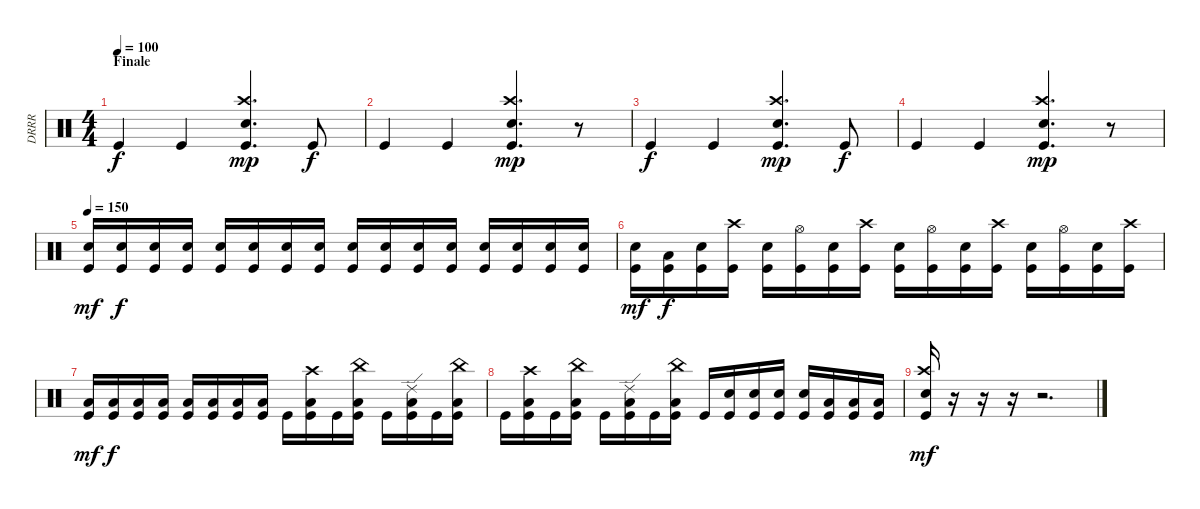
\track ("DRRR" "DRRR") {instrument percussion}
\staff {score}
\articulation defaults
\ts (4 4)
\section ("" "Finale")
\tempo 100
\clef neutral
\ks c "Kick (hit)".4{dy f} "Kick (hit)".4
("Crash high (hit)" "Snare (hit) 2" "Kick (hit)").4{d dy mp} "Kick (hit)".8{dy f} |
"Kick (hit)".4 "Kick (hit)".4 ("Crash high (hit)" "Snare (hit) 2" "Kick (hit)").4{d dy mp} r.8 |
"Kick (hit)".4{dy f} "Kick (hit)".4 ("Crash high (hit)" "Snare (hit) 2" "Kick (hit)").4{d dy mp} "Kick (hit)".8{dy f} |
"Kick (hit)".4 "Kick (hit)".4 ("Crash high (hit)" "Snare (hit) 2" "Kick (hit)").4{d dy mp} r.8 |
\tempo 150
("Snare (hit) 2" "Kick (hit)").16{dy mf} ("Snare (hit) 2" "Kick (hit)").16{dy f} ("Snare (hit) 2" "Kick (hit)").16 ("Snare (hit) 2" "Kick (hit)").16 ("Snare (hit) 2" "Kick (hit)").16 ("Snare (hit) 2" "Kick (hit)").16 ("Snare (hit) 2" "Kick (hit)").16 ("Snare (hit) 2" "Kick (hit)").16 ("Snare (hit) 2" "Kick (hit)").16 ("Snare (hit) 2" "Kick (hit)").16 ("Snare (hit) 2" "Kick (hit)").16 ("Snare (hit) 2" "Kick (hit)").16 ("Snare (hit) 2" "Kick (hit)").16 ("Snare (hit) 2" "Kick (hit)").16 ("Snare (hit) 2" "Kick (hit)").16 ("Snare (hit) 2" "Kick (hit)").16 |
("Snare (hit) 2" "Kick (hit)").16{dy mf} ("Low Tom (hit)" "Kick (hit)").16{dy f} ("Snare (hit) 2" "Kick (hit)").16 ("Crash high (hit)" "Kick (hit)").16 ("Snare (hit) 2" "Kick (hit)").16 ("Hi-Hat (open)" "Kick (hit)").16 ("Snare (hit) 2" "Kick (hit)").16 ("Crash high (hit)" "Kick (hit)").16 ("Snare (hit) 2" "Kick (hit)").16 ("Hi-Hat (open)" "Kick (hit)").16 ("Snare (hit) 2" "Kick (hit)").16 ("Crash high (hit)" "Kick (hit)").16 ("Snare (hit) 2" "Kick (hit)").16 ("Hi-Hat (open)" "Kick (hit)").16 ("Snare (hit) 2" "Kick (hit)").16 ("Crash high (hit)" "Kick (hit)").16 |
("Low Tom (hit)" "Kick (hit)").16{dy mf} ("Low Tom (hit)" "Kick (hit)").16{dy f} ("Low Tom (hit)" "Kick (hit)").16 ("Low Tom (hit)" "Kick (hit)").16 ("Low Tom (hit)" "Kick (hit)").16 ("Low Tom (hit)" "Kick (hit)").16 ("Low Tom (hit)" "Kick (hit)").16 ("Low Tom (hit)" "Kick (hit)").16 "Kick (hit)".16 ("Crash high (hit)" "Low Tom (hit)" "Kick (hit)").16 "Kick (hit)".16 ("China (hit)" "Low Tom (hit)" "Kick (hit)").16 "Kick (hit)".16 ("Ride (edge) 2" "Low Tom (hit)" "Kick (hit)").16 "Kick (hit)".16 ("China (hit)" "Low Tom (hit)" "Kick (hit)").16 |
"Kick (hit)".16 ("Crash high (hit)" "Low Tom (hit)" "Kick (hit)").16 "Kick (hit)".16 ("China (hit)" "Low Tom (hit)" "Kick (hit)").16 "Kick (hit)".16 ("Ride (edge) 2" "Low Tom (hit)" "Kick (hit)").16 "Kick (hit)".16 ("China (hit)" "Low Tom (hit)" "Kick (hit)").16 "Kick (hit)".16 ("Snare (hit) 2" "Kick (hit)").16 ("Snare (hit) 2" "Kick (hit)").16 ("Snare (hit) 2" "Kick (hit)").16 ("Snare (hit) 2" "Kick (hit)").16 ("Low Tom (hit)" "Kick (hit)").16 ("Low Tom (hit)" "Kick (hit)").16 ("Low Tom (hit)" "Kick (hit)").16 |
("Crash high (hit)" "Snare (hit) 2" "Kick (hit)").16{dy mf} r.16 r.16 r.16 r.2{d}
